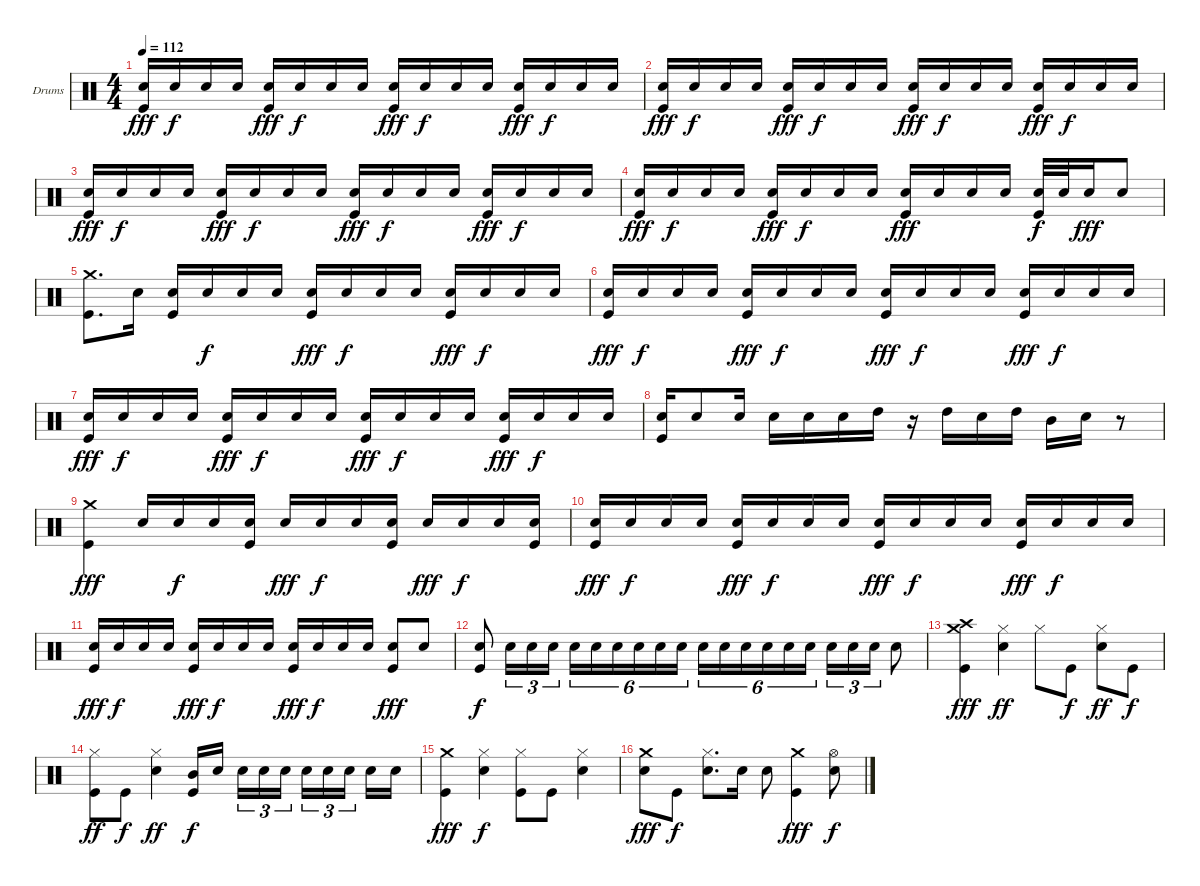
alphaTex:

\defaultSystemsLayout 4
\bracketExtendMode groupsimilarinstruments
\firstSystemTrackNameOrientation horizontal
\otherSystemsTrackNameOrientation horizontal
\track ("Drumkit" "Drums") {instrument percussion}
\staff {score}
\articulation defaults
\ts (4 4)
\tempo 112
\clef neutral
\ks c
("Snare (hit) 2" "Kick (hit)").16{dy fff} "Snare (hit) 2".16{dy f} "Snare (hit) 2".16 "Snare (hit) 2".16 ("Snare (hit) 2" "Kick (hit)").16{dy fff} "Snare (hit) 2".16{dy f} "Snare (hit) 2".16 "Snare (hit) 2".16 ("Snare (hit) 2" "Kick (hit)").16{dy fff} "Snare (hit) 2".16{dy f} "Snare (hit) 2".16 "Snare (hit) 2".16 ("Snare (hit) 2" "Kick (hit)").16{dy fff} "Snare (hit) 2".16{dy f} "Snare (hit) 2".16 "Snare (hit) 2".16 |
("Snare (hit) 2" "Kick (hit)").16{dy fff} "Snare (hit) 2".16{dy f} "Snare (hit) 2".16 "Snare (hit) 2".16 ("Snare (hit) 2" "Kick (hit)").16{dy fff} "Snare (hit) 2".16{dy f} "Snare (hit) 2".16 "Snare (hit) 2".16 ("Snare (hit) 2" "Kick (hit)").16{dy fff} "Snare (hit) 2".16{dy f} "Snare (hit) 2".16 "Snare (hit) 2".16 ("Snare (hit) 2" "Kick (hit)").16{dy fff} "Snare (hit) 2".16{dy f} "Snare (hit) 2".16 "Snare (hit) 2".16 |
("Snare (hit) 2" "Kick (hit)").16{dy fff} "Snare (hit) 2".16{dy f} "Snare (hit) 2".16 "Snare (hit) 2".16 ("Snare (hit) 2" "Kick (hit)").16{dy fff} "Snare (hit) 2".16{dy f} "Snare (hit) 2".16 "Snare (hit) 2".16 ("Snare (hit) 2" "Kick (hit)").16{dy fff} "Snare (hit) 2".16{dy f} "Snare (hit) 2".16 "Snare (hit) 2".16 ("Snare (hit) 2" "Kick (hit)").16{dy fff} "Snare (hit) 2".16{dy f} "Snare (hit) 2".16 "Snare (hit) 2".16 |
("Snare (hit) 2" "Kick (hit)").16{dy fff} "Snare (hit) 2".16{dy f} "Snare (hit) 2".16 "Snare (hit) 2".16 ("Snare (hit) 2" "Kick (hit)").16{dy fff} "Snare (hit) 2".16{dy f} "Snare (hit) 2".16 "Snare (hit) 2".16 ("Snare (hit) 2" "Kick (hit)").16{dy fff} "Snare (hit) 2".16 "Snare (hit) 2".16 "Snare (hit) 2".16 ("Snare (hit) 2" "Kick (hit)").32{dy f} "Snare (hit) 2".32 "Snare (hit) 2".16{dy fff} "Snare (hit) 2".8 |
("Crash medium (hit)" "Kick (hit)").8{d} "Snare (hit) 2".16 ("Snare (hit) 2" "Kick (hit)").16 "Snare (hit) 2".16{dy f} "Snare (hit) 2".16 "Snare (hit) 2".16 ("Snare (hit) 2" "Kick (hit)").16{dy fff} "Snare (hit) 2".16{dy f} "Snare (hit) 2".16 "Snare (hit) 2".16 ("Snare (hit) 2" "Kick (hit)").16{dy fff} "Snare (hit) 2".16{dy f} "Snare (hit) 2".16 "Snare (hit) 2".16 |
("Snare (hit) 2" "Kick (hit)").16{dy fff} "Snare (hit) 2".16{dy f} "Snare (hit) 2".16 "Snare (hit) 2".16 ("Snare (hit) 2" "Kick (hit)").16{dy fff} "Snare (hit) 2".16{dy f} "Snare (hit) 2".16 "Snare (hit) 2".16 ("Snare (hit) 2" "Kick (hit)").16{dy fff} "Snare (hit) 2".16{dy f} "Snare (hit) 2".16 "Snare (hit) 2".16 ("Snare (hit) 2" "Kick (hit)").16{dy fff} "Snare (hit) 2".16{dy f} "Snare (hit) 2".16 "Snare (hit) 2".16 |
("Snare (hit) 2" "Kick (hit)").16{dy fff} "Snare (hit) 2".16{dy f} "Snare (hit) 2".16 "Snare (hit) 2".16 ("Snare (hit) 2" "Kick (hit)").16{dy fff} "Snare (hit) 2".16{dy f} "Snare (hit) 2".16 "Snare (hit) 2".16 ("Snare (hit) 2" "Kick (hit)").16{dy fff} "Snare (hit) 2".16{dy f} "Snare (hit) 2".16 "Snare (hit) 2".16 ("Snare (hit) 2" "Kick (hit)").16{dy fff} "Snare (hit) 2".16{dy f} "Snare (hit) 2".16 "Snare (hit) 2".16 |
("Snare (hit) 2" "Kick (hit)").16 "Snare (hit) 2".8 "Snare (hit) 2".16 "Snare (hit) 2".16 "Snare (hit) 2".16 "Snare (hit) 2".16 "High Tom (hit)".16 r.16 "High Tom (hit)".16 "Snare (hit) 2".16 "High Tom (hit)".16 "Mid Tom (hit)".16 "Snare (hit) 2".16 r.8 |
("Crash medium (hit)" "Kick (hit)").4{dy fff} "Snare (hit) 2".16 "Snare (hit) 2".16{dy f} "Snare (hit) 2".16 ("Snare (hit) 2" "Kick (hit)").16 "Snare (hit) 2".16{dy fff} "Snare (hit) 2".16{dy f} "Snare (hit) 2".16 ("Snare (hit) 2" "Kick (hit)").16 "Snare (hit) 2".16{dy fff} "Snare (hit) 2".16{dy f} "Snare (hit) 2".16 ("Snare (hit) 2" "Kick (hit)").16 |
("Snare (hit) 2" "Kick (hit)").16{dy fff} "Snare (hit) 2".16{dy f} "Snare (hit) 2".16 "Snare (hit) 2".16 ("Snare (hit) 2" "Kick (hit)").16{dy fff} "Snare (hit) 2".16{dy f} "Snare (hit) 2".16 "Snare (hit) 2".16 ("Snare (hit) 2" "Kick (hit)").16{dy fff} "Snare (hit) 2".16{dy f} "Snare (hit) 2".16 "Snare (hit) 2".16 ("Snare (hit) 2" "Kick (hit)").16{dy fff} "Snare (hit) 2".16{dy f} "Snare (hit) 2".16 "Snare (hit) 2".16 |
("Snare (hit) 2" "Kick (hit)").16{dy fff} "Snare (hit) 2".16{dy f} "Snare (hit) 2".16 "Snare (hit) 2".16 ("Snare (hit) 2" "Kick (hit)").16{dy fff} "Snare (hit) 2".16{dy f} "Snare (hit) 2".16 "Snare (hit) 2".16 ("Snare (hit) 2" "Kick (hit)").16{dy fff} "Snare (hit) 2".16{dy f} "Snare (hit) 2".16 "Snare (hit) 2".16 ("Snare (hit) 2" "Kick (hit)").8{dy fff} "Snare (hit) 2".8 |
("Snare (hit) 2" "Kick (hit)").8{dy f} "Snare (hit) 2".16{tu (3 2)} "Snare (hit) 2".16{tu (3 2)} "Snare (hit) 2".16{tu (3 2)} "Snare (hit) 2".16{tu (6 4)} "Snare (hit) 2".16{tu (6 4)} "Snare (hit) 2".16{tu (6 4)} "Snare (hit) 2".16{tu (6 4)} "Snare (hit) 2".16{tu (6 4)} "Snare (hit) 2".16{tu (6 4)} "Snare (hit) 2".16{tu (6 4)} "Snare (hit) 2".16{tu (6 4)} "Snare (hit) 2".16{tu (6 4)} "Snare (hit) 2".16{tu (6 4)} "Snare (hit) 2".16{tu (6 4)} "Snare (hit) 2".16{tu (6 4)} "Snare (hit) 2".16{tu (3 2)} "Snare (hit) 2".16{tu (3 2)} "Snare (hit) 2".16{tu (3 2)} "Snare (hit) 2".8 |
("Crash medium (hit)" "Crash high (hit)" "Kick (hit)").4{dy fff} ("Hi-Hat (closed)" "Snare (hit) 2").4{dy ff} "Hi-Hat (closed)".8 "Kick (hit)".8{dy f} ("Hi-Hat (closed)" "Snare (hit) 2").8{dy ff} "Kick (hit)".8{dy f} |
("Hi-Hat (closed)" "Kick (hit)").8{dy ff} "Kick (hit)".8{dy f} ("Hi-Hat (closed)" "Snare (hit) 2").4{dy ff} ("Mid Tom (hit)" "Kick (hit)").16{dy f} "Snare (hit) 2".16 "Snare (hit) 2".16{tu (3 2)} "Snare (hit) 2".16{tu (3 2)} "Snare (hit) 2".16{tu (3 2)} "Snare (hit) 2".16{tu (3 2)} "Snare (hit) 2".16{tu (3 2)} "Snare (hit) 2".16{tu (3 2)} "Snare (hit) 2".16 "Snare (hit) 2".16 |
("Crash medium (hit)" "Kick (hit)").4{dy fff} ("Hi-Hat (closed)" "Snare (hit) 2").4{dy f} ("Hi-Hat (closed)" "Kick (hit)").8 "Kick (hit)".8 ("Hi-Hat (closed)" "Snare (hit) 2").4 |
("Crash medium (hit)" "Snare (hit) 2").8{dy fff} "Kick (hit)".8{dy f} ("Hi-Hat (closed)" "Snare (hit) 2").8{d} "Snare (hit) 2".16 "Snare (hit) 2".8 ("Crash medium (hit)" "Kick (hit)").4{dy fff} ("Hi-Hat (open)" "Snare (hit) 2").8{dy f}
